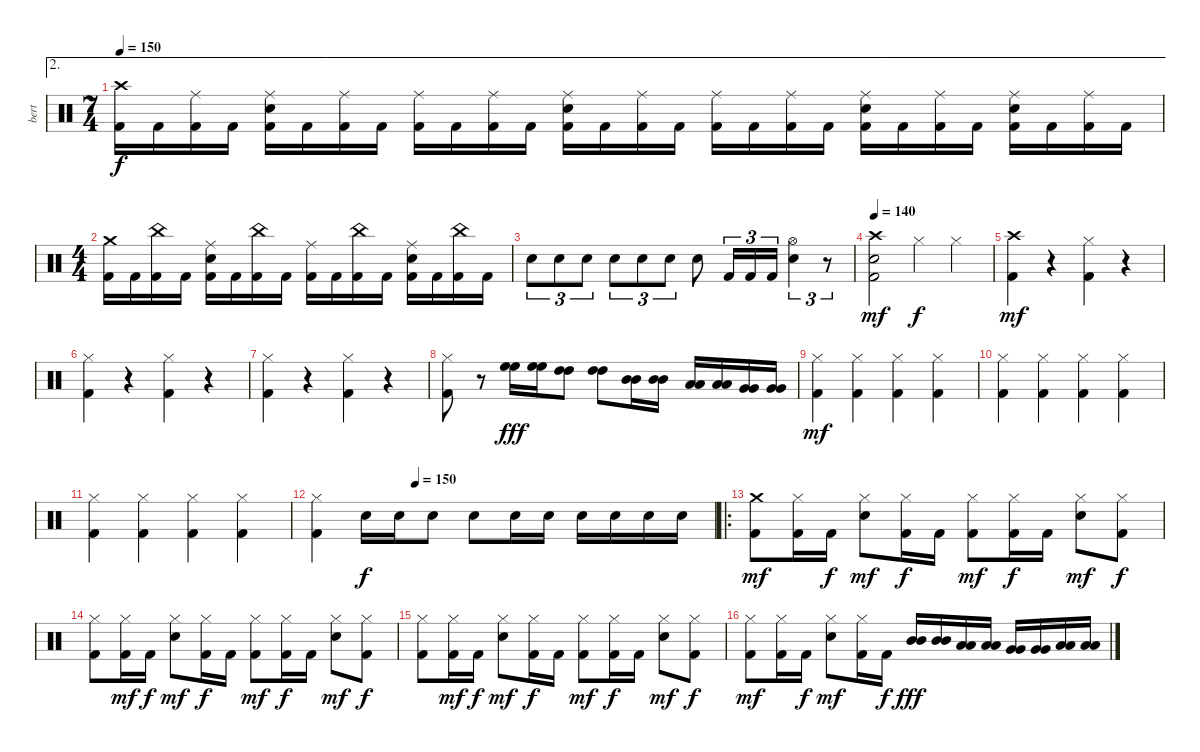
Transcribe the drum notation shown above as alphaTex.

\track ("bert" "bert") {instrument percussion}
\staff {score}
\articulation defaults
\ae 2
\ts (7 4)
\tempo 150
\clef neutral
\ks c
("Crash high (hit)" "Kick (hit) 2").16{dy f} "Kick (hit) 2".16 ("Ride (middle)" "Kick (hit) 2").16 "Kick (hit) 2".16 ("Ride (middle)" "Snare (hit) 2" "Kick (hit) 2").16 "Kick (hit) 2".16 ("Ride (middle)" "Kick (hit) 2").16 "Kick (hit) 2".16 ("Ride (middle)" "Kick (hit) 2").16 "Kick (hit) 2".16 ("Ride (middle)" "Kick (hit) 2").16 "Kick (hit) 2".16 ("Ride (middle)" "Snare (hit) 2" "Kick (hit) 2").16 "Kick (hit) 2".16 ("Ride (middle)" "Kick (hit) 2").16 "Kick (hit) 2".16 ("Ride (middle)" "Kick (hit) 2").16 "Kick (hit) 2".16 ("Ride (middle)" "Kick (hit) 2").16 "Kick (hit) 2".16 ("Ride (middle)" "Snare (hit) 2" "Kick (hit) 2").16 "Kick (hit) 2".16 ("Ride (middle)" "Kick (hit) 2").16 "Kick (hit) 2".16 ("Ride (middle)" "Snare (hit) 2" "Kick (hit) 2").16 "Kick (hit) 2".16 ("Ride (middle)" "Kick (hit) 2").16 "Kick (hit) 2".16 |
\ts (4 4)
("Crash medium (hit)" "Kick (hit) 2").16 "Kick (hit) 2".16 ("China (hit)" "Kick (hit) 2").16 "Kick (hit) 2".16 ("Ride (middle)" "Snare (hit) 2" "Kick (hit) 2").16 "Kick (hit) 2".16 ("China (hit)" "Kick (hit) 2").16 "Kick (hit) 2".16 ("Ride (middle)" "Kick (hit) 2").16 "Kick (hit) 2".16 ("China (hit)" "Kick (hit) 2").16 "Kick (hit) 2".16 ("Ride (middle)" "Snare (hit) 2" "Kick (hit) 2").16 "Kick (hit) 2".16 ("China (hit)" "Kick (hit) 2").16 "Kick (hit) 2".16 |
"Snare (hit) 2".8{tu (3 2)} "Snare (hit) 2".8{tu (3 2)} "Snare (hit) 2".8{tu (3 2)} "Snare (hit) 2".8{tu (3 2)} "Snare (hit) 2".8{tu (3 2)} "Snare (hit) 2".8{tu (3 2)} "Snare (hit) 2".8 "Kick (hit) 2".16{tu (3 2)} "Kick (hit) 2".16{tu (3 2)} "Kick (hit) 2".16{tu (3 2)} ("Hi-Hat (open)" "Snare (hit) 2").4{tu (3 2)} r.8{tu (3 2)} |
\tempo 140
("Crash high (hit)" "Snare (hit) 2" "Kick (hit) 2").2{dy mf} "Hi-Hat (closed)".4{dy f} "Hi-Hat (closed)".4 |
("Crash high (hit)" "Kick (hit) 2").4{dy mf} r.4 ("Hi-Hat (closed)" "Kick (hit) 2").4 r.4 |
("Hi-Hat (closed)" "Kick (hit) 2").4 r.4 ("Hi-Hat (closed)" "Kick (hit) 2").4 r.4 |
("Hi-Hat (closed)" "Kick (hit) 2").4 r.4 ("Hi-Hat (closed)" "Kick (hit) 2").4 r.4 |
("Hi-Hat (closed)" "Kick (hit) 2").8 r.8 ("High Floor Tom (hit)" "High Floor Tom (hit)").16{dy fff} ("High Floor Tom (hit)" "High Floor Tom (hit)").16 ("High Tom (hit)" "High Tom (hit)").8 ("High Tom (hit)" "High Tom (hit)").8 ("Mid Tom (hit)" "Mid Tom (hit)").16 ("Mid Tom (hit)" "Mid Tom (hit)").16 ("Low Tom (hit)" "Low Tom (hit)").16 ("Low Tom (hit)" "Low Tom (hit)").16 ("Very Low Tom (hit)" "Very Low Tom (hit)").16 ("Very Low Tom (hit)" "Very Low Tom (hit)").16 |
("Hi-Hat (closed)" "Kick (hit) 2").4{dy mf} ("Hi-Hat (closed)" "Kick (hit) 2").4 ("Hi-Hat (closed)" "Kick (hit) 2").4 ("Hi-Hat (closed)" "Kick (hit) 2").4 |
("Hi-Hat (closed)" "Kick (hit) 2").4 ("Hi-Hat (closed)" "Kick (hit) 2").4 ("Hi-Hat (closed)" "Kick (hit) 2").4 ("Hi-Hat (closed)" "Kick (hit) 2").4 |
("Hi-Hat (closed)" "Kick (hit) 2").4 ("Hi-Hat (closed)" "Kick (hit) 2").4 ("Hi-Hat (closed)" "Kick (hit) 2").4 ("Hi-Hat (closed)" "Kick (hit) 2").4 |
\tempo (150 0.25)
("Hi-Hat (closed)" "Kick (hit) 2").4 "Snare (hit) 2".16{dy f} "Snare (hit) 2".16 "Snare (hit) 2".8 "Snare (hit) 2".8 "Snare (hit) 2".16 "Snare (hit) 2".16 "Snare (hit) 2".16 "Snare (hit) 2".16 "Snare (hit) 2".16 "Snare (hit) 2".16 |
\ro
("Crash medium (hit)" "Kick (hit) 2").8{dy mf} ("Hi-Hat (closed)" "Kick (hit) 2").16 "Kick (hit) 2".16{dy f} ("Hi-Hat (closed)" "Snare (hit) 2").8{dy mf} ("Hi-Hat (closed)" "Kick (hit) 2").16{dy f} "Kick (hit) 2".16 ("Hi-Hat (closed)" "Kick (hit) 2").8{dy mf} ("Hi-Hat (closed)" "Kick (hit) 2").16{dy f} "Kick (hit) 2".16 ("Hi-Hat (closed)" "Snare (hit) 2").8{dy mf} ("Hi-Hat (closed)" "Kick (hit) 2").8{dy f} |
("Hi-Hat (closed)" "Kick (hit) 2").8 ("Hi-Hat (closed)" "Kick (hit) 2").16{dy mf} "Kick (hit) 2".16{dy f} ("Hi-Hat (closed)" "Snare (hit) 2").8{dy mf} ("Hi-Hat (closed)" "Kick (hit) 2").16{dy f} "Kick (hit) 2".16 ("Hi-Hat (closed)" "Kick (hit) 2").8{dy mf} ("Hi-Hat (closed)" "Kick (hit) 2").16{dy f} "Kick (hit) 2".16 ("Hi-Hat (closed)" "Snare (hit) 2").8{dy mf} ("Hi-Hat (closed)" "Kick (hit) 2").8{dy f} |
("Hi-Hat (closed)" "Kick (hit) 2").8 ("Hi-Hat (closed)" "Kick (hit) 2").16{dy mf} "Kick (hit) 2".16{dy f} ("Hi-Hat (closed)" "Snare (hit) 2").8{dy mf} ("Hi-Hat (closed)" "Kick (hit) 2").16{dy f} "Kick (hit) 2".16 ("Hi-Hat (closed)" "Kick (hit) 2").8{dy mf} ("Hi-Hat (closed)" "Kick (hit) 2").16{dy f} "Kick (hit) 2".16 ("Hi-Hat (closed)" "Snare (hit) 2").8{dy mf} ("Hi-Hat (closed)" "Kick (hit) 2").8{dy f} |
("Hi-Hat (closed)" "Kick (hit) 2").8{dy mf} ("Hi-Hat (closed)" "Kick (hit) 2").16 "Kick (hit) 2".16{dy f} ("Hi-Hat (closed)" "Snare (hit) 2").8{dy mf} ("Hi-Hat (closed)" "Kick (hit) 2").16 "Kick (hit) 2".16{dy f} ("Mid Tom (hit)" "Mid Tom (hit)").16{dy fff} ("Mid Tom (hit)" "Mid Tom (hit)").16 ("Low Tom (hit)" "Low Tom (hit)").16 ("Low Tom (hit)" "Low Tom (hit)").16 ("Very Low Tom (hit)" "Very Low Tom (hit)").16 ("Very Low Tom (hit)" "Very Low Tom (hit)").16 ("Low Floor Tom (hit)" "Low Floor Tom (hit)").16 ("Low Floor Tom (hit)" "Low Floor Tom (hit)").16
